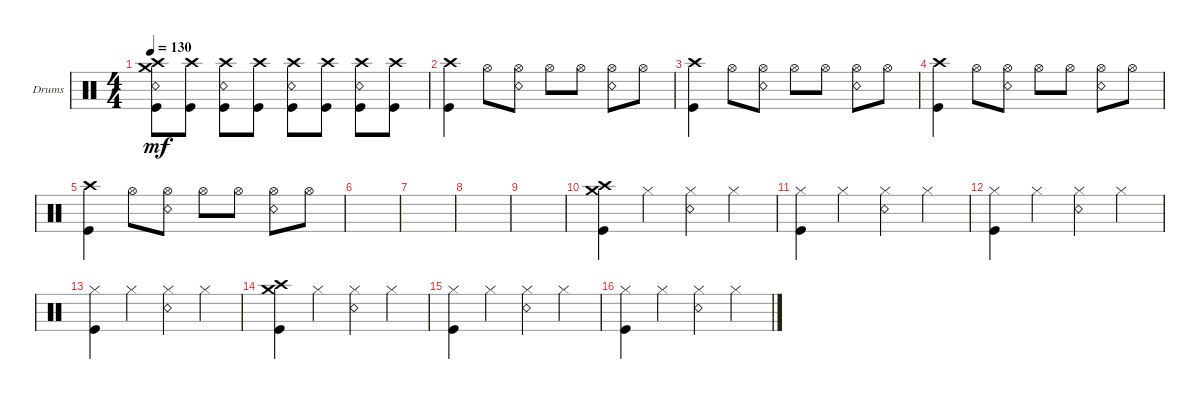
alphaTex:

\defaultSystemsLayout 4
\bracketExtendMode groupsimilarinstruments
\firstSystemTrackNameOrientation horizontal
\otherSystemsTrackNameOrientation horizontal
\track ("Drumkit" "Drums") {instrument percussion}
\staff {score}
\articulation defaults
\ts (4 4)
\tempo 130
\clef neutral
\ks c
("Crash medium (hit)" "Crash high (hit)" "Kick (hit)" "Snare (rim shot)").8{dy mf} ("Crash high (hit)" "Kick (hit)").8 ("Crash high (hit)" "Kick (hit)" "Snare (rim shot)").8 ("Crash high (hit)" "Kick (hit)").8 ("Crash high (hit)" "Kick (hit)" "Snare (rim shot)").8 ("Crash high (hit)" "Kick (hit)").8 ("Crash high (hit)" "Kick (hit)" "Snare (rim shot)").8 ("Crash high (hit)" "Kick (hit)").8 |
("Crash high (hit)" "Kick (hit)").4 "Hi-Hat (open)".8 ("Hi-Hat (open)" "Snare (rim shot)").8 "Hi-Hat (open)".8 "Hi-Hat (open)".8 ("Hi-Hat (open)" "Snare (rim shot)").8 "Hi-Hat (open)".8 |
("Crash high (hit)" "Kick (hit)").4 "Hi-Hat (open)".8 ("Hi-Hat (open)" "Snare (rim shot)").8 "Hi-Hat (open)".8 "Hi-Hat (open)".8 ("Hi-Hat (open)" "Snare (rim shot)").8 "Hi-Hat (open)".8 |
("Crash high (hit)" "Kick (hit)").4 "Hi-Hat (open)".8 ("Hi-Hat (open)" "Snare (rim shot)").8 "Hi-Hat (open)".8 "Hi-Hat (open)".8 ("Hi-Hat (open)" "Snare (rim shot)").8 "Hi-Hat (open)".8 |
("Crash high (hit)" "Kick (hit)").4 "Hi-Hat (open)".8 ("Hi-Hat (open)" "Snare (rim shot)").8 "Hi-Hat (open)".8 "Hi-Hat (open)".8 ("Hi-Hat (open)" "Snare (rim shot)").8 "Hi-Hat (open)".8 |
|
|
|
|
("Crash medium (hit)" "Crash high (hit)" "Kick (hit)").4 "Hi-Hat (closed)".4 ("Hi-Hat (closed)" "Snare (rim shot)").4 "Hi-Hat (closed)".4 |
("Hi-Hat (closed)" "Kick (hit)").4 "Hi-Hat (closed)".4 ("Hi-Hat (closed)" "Snare (rim shot)").4 "Hi-Hat (closed)".4 |
("Hi-Hat (closed)" "Kick (hit)").4 "Hi-Hat (closed)".4 ("Hi-Hat (closed)" "Snare (rim shot)").4 "Hi-Hat (closed)".4 |
("Hi-Hat (closed)" "Kick (hit)").4 "Hi-Hat (closed)".4 ("Hi-Hat (closed)" "Snare (rim shot)").4 "Hi-Hat (closed)".4 |
("Crash medium (hit)" "Crash high (hit)" "Kick (hit)").4 "Hi-Hat (closed)".4 ("Hi-Hat (closed)" "Snare (rim shot)").4 "Hi-Hat (closed)".4 |
("Hi-Hat (closed)" "Kick (hit)").4 "Hi-Hat (closed)".4 ("Hi-Hat (closed)" "Snare (rim shot)").4 "Hi-Hat (closed)".4 |
("Hi-Hat (closed)" "Kick (hit)").4 "Hi-Hat (closed)".4 ("Hi-Hat (closed)" "Snare (rim shot)").4 "Hi-Hat (closed)".4
